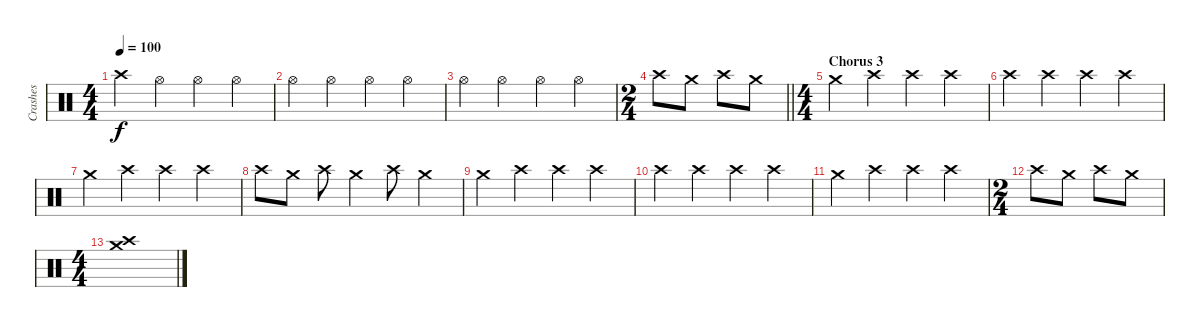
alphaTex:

\track ("Crashes" "Crashes") {instrument percussion}
\staff {score}
\articulation defaults
\ts (4 4)
\tempo 100
\clef neutral
\ks c "Crash high (hit)".4{dy f} "Hi-Hat (open)".4 "Hi-Hat (open)".4 "Hi-Hat (open)".4
|
"Hi-Hat (open)".4 "Hi-Hat (open)".4 "Hi-Hat (open)".4 "Hi-Hat (open)".4 |
"Hi-Hat (open)".4 "Hi-Hat (open)".4 "Hi-Hat (open)".4 "Hi-Hat (open)".4 |
\ts (2 4)
\barLineRight lightlight "Crash high (hit)".8 "Crash medium (hit)".8 "Crash high (hit)".8 "Crash medium (hit)".8
|
\ts (4 4)
\section ("" "Chorus 3")
"Crash medium (hit)".4 "Crash high (hit)".4 "Crash high (hit)".4 "Crash high (hit)".4 |
"Crash high (hit)".4 "Crash high (hit)".4 "Crash high (hit)".4 "Crash high (hit)".4 |
"Crash medium (hit)".4 "Crash high (hit)".4 "Crash high (hit)".4 "Crash high (hit)".4 |
"Crash high (hit)".8 "Crash medium (hit)".8 "Crash high (hit)".8 "Crash medium (hit)".4 "Crash high (hit)".8 "Crash medium (hit)".4 |
"Crash medium (hit)".4 "Crash high (hit)".4 "Crash high (hit)".4 "Crash high (hit)".4 |
"Crash high (hit)".4 "Crash high (hit)".4 "Crash high (hit)".4 "Crash high (hit)".4 |
"Crash medium (hit)".4 "Crash high (hit)".4 "Crash high (hit)".4 "Crash high (hit)".4 |
\ts (2 4)
"Crash high (hit)".8 "Crash medium (hit)".8 "Crash high (hit)".8 "Crash medium (hit)".8 |
\ts (4 4)
("Crash high (hit)" "Crash medium (hit)").1
